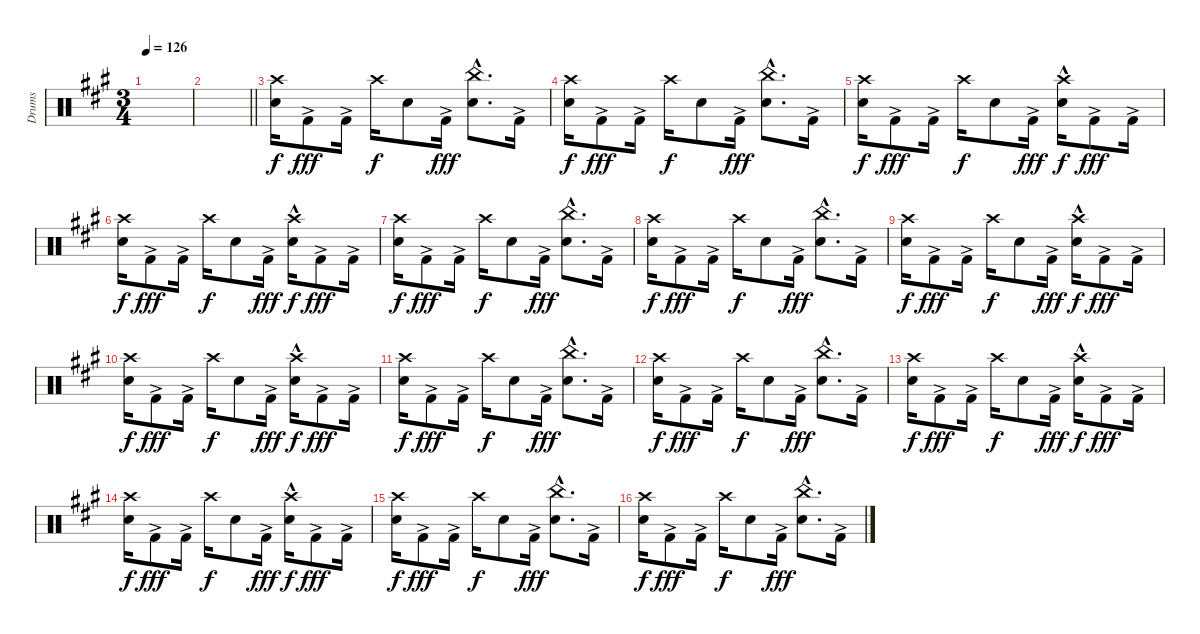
\track ("Drums" "Drums") {instrument percussion}
\staff {score}
\articulation defaults
\ts (3 4)
\tempo 126
\clef neutral
\ks f#minor
|
\barLineRight lightlight
|
("Crash high (hit)" "Snare (hit) 2").16{dy f} "Kick (hit) 2"{ac}.8{dy fff} "Kick (hit) 2"{ac}.16 "Crash high (hit)".16{dy f} "Snare (hit) 2".8 "Kick (hit) 2"{ac}.16{dy fff} ("China (hit)"{hac} "Snare (hit) 2"{hac}).8{d} "Kick (hit) 2"{ac}.16 |
("Crash high (hit)" "Snare (hit) 2").16{dy f} "Kick (hit) 2"{ac}.8{dy fff} "Kick (hit) 2"{ac}.16 "Crash high (hit)".16{dy f} "Snare (hit) 2".8 "Kick (hit) 2"{ac}.16{dy fff} ("China (hit)"{hac} "Snare (hit) 2"{hac}).8{d} "Kick (hit) 2"{ac}.16 |
("Crash high (hit)" "Snare (hit) 2").16{dy f} "Kick (hit) 2"{ac}.8{dy fff} "Kick (hit) 2"{ac}.16 "Crash high (hit)".16{dy f} "Snare (hit) 2".8 "Kick (hit) 2"{ac}.16{dy fff} ("Crash high (hit)"{hac} "Snare (hit) 2").16{dy f} "Kick (hit) 2"{ac}.8{dy fff} "Kick (hit) 2"{ac}.16 |
("Crash high (hit)" "Snare (hit) 2").16{dy f} "Kick (hit) 2"{ac}.8{dy fff} "Kick (hit) 2"{ac}.16 "Crash high (hit)".16{dy f} "Snare (hit) 2".8 "Kick (hit) 2"{ac}.16{dy fff} ("Crash high (hit)"{hac} "Snare (hit) 2").16{dy f} "Kick (hit) 2"{ac}.8{dy fff} "Kick (hit) 2"{ac}.16 |
("Crash high (hit)" "Snare (hit) 2").16{dy f} "Kick (hit) 2"{ac}.8{dy fff} "Kick (hit) 2"{ac}.16 "Crash high (hit)".16{dy f} "Snare (hit) 2".8 "Kick (hit) 2"{ac}.16{dy fff} ("China (hit)"{hac} "Snare (hit) 2"{hac}).8{d} "Kick (hit) 2"{ac}.16 |
("Crash high (hit)" "Snare (hit) 2").16{dy f} "Kick (hit) 2"{ac}.8{dy fff} "Kick (hit) 2"{ac}.16 "Crash high (hit)".16{dy f} "Snare (hit) 2".8 "Kick (hit) 2"{ac}.16{dy fff} ("China (hit)"{hac} "Snare (hit) 2"{hac}).8{d} "Kick (hit) 2"{ac}.16 |
("Crash high (hit)" "Snare (hit) 2").16{dy f} "Kick (hit) 2"{ac}.8{dy fff} "Kick (hit) 2"{ac}.16 "Crash high (hit)".16{dy f} "Snare (hit) 2".8 "Kick (hit) 2"{ac}.16{dy fff} ("Crash high (hit)"{hac} "Snare (hit) 2").16{dy f} "Kick (hit) 2"{ac}.8{dy fff} "Kick (hit) 2"{ac}.16 |
("Crash high (hit)" "Snare (hit) 2").16{dy f} "Kick (hit) 2"{ac}.8{dy fff} "Kick (hit) 2"{ac}.16 "Crash high (hit)".16{dy f} "Snare (hit) 2".8 "Kick (hit) 2"{ac}.16{dy fff} ("Crash high (hit)"{hac} "Snare (hit) 2").16{dy f} "Kick (hit) 2"{ac}.8{dy fff} "Kick (hit) 2"{ac}.16 |
("Crash high (hit)" "Snare (hit) 2").16{dy f} "Kick (hit) 2"{ac}.8{dy fff} "Kick (hit) 2"{ac}.16 "Crash high (hit)".16{dy f} "Snare (hit) 2".8 "Kick (hit) 2"{ac}.16{dy fff} ("China (hit)"{hac} "Snare (hit) 2"{hac}).8{d} "Kick (hit) 2"{ac}.16 |
("Crash high (hit)" "Snare (hit) 2").16{dy f} "Kick (hit) 2"{ac}.8{dy fff} "Kick (hit) 2"{ac}.16 "Crash high (hit)".16{dy f} "Snare (hit) 2".8 "Kick (hit) 2"{ac}.16{dy fff} ("China (hit)"{hac} "Snare (hit) 2"{hac}).8{d} "Kick (hit) 2"{ac}.16 |
("Crash high (hit)" "Snare (hit) 2").16{dy f} "Kick (hit) 2"{ac}.8{dy fff} "Kick (hit) 2"{ac}.16 "Crash high (hit)".16{dy f} "Snare (hit) 2".8 "Kick (hit) 2"{ac}.16{dy fff} ("Crash high (hit)"{hac} "Snare (hit) 2").16{dy f} "Kick (hit) 2"{ac}.8{dy fff} "Kick (hit) 2"{ac}.16 |
("Crash high (hit)" "Snare (hit) 2").16{dy f} "Kick (hit) 2"{ac}.8{dy fff} "Kick (hit) 2"{ac}.16 "Crash high (hit)".16{dy f} "Snare (hit) 2".8 "Kick (hit) 2"{ac}.16{dy fff} ("Crash high (hit)"{hac} "Snare (hit) 2").16{dy f} "Kick (hit) 2"{ac}.8{dy fff} "Kick (hit) 2"{ac}.16 |
("Crash high (hit)" "Snare (hit) 2").16{dy f} "Kick (hit) 2"{ac}.8{dy fff} "Kick (hit) 2"{ac}.16 "Crash high (hit)".16{dy f} "Snare (hit) 2".8 "Kick (hit) 2"{ac}.16{dy fff} ("China (hit)"{hac} "Snare (hit) 2"{hac}).8{d} "Kick (hit) 2"{ac}.16 |
("Crash high (hit)" "Snare (hit) 2").16{dy f} "Kick (hit) 2"{ac}.8{dy fff} "Kick (hit) 2"{ac}.16 "Crash high (hit)".16{dy f} "Snare (hit) 2".8 "Kick (hit) 2"{ac}.16{dy fff} ("China (hit)"{hac} "Snare (hit) 2"{hac}).8{d} "Kick (hit) 2"{ac}.16
